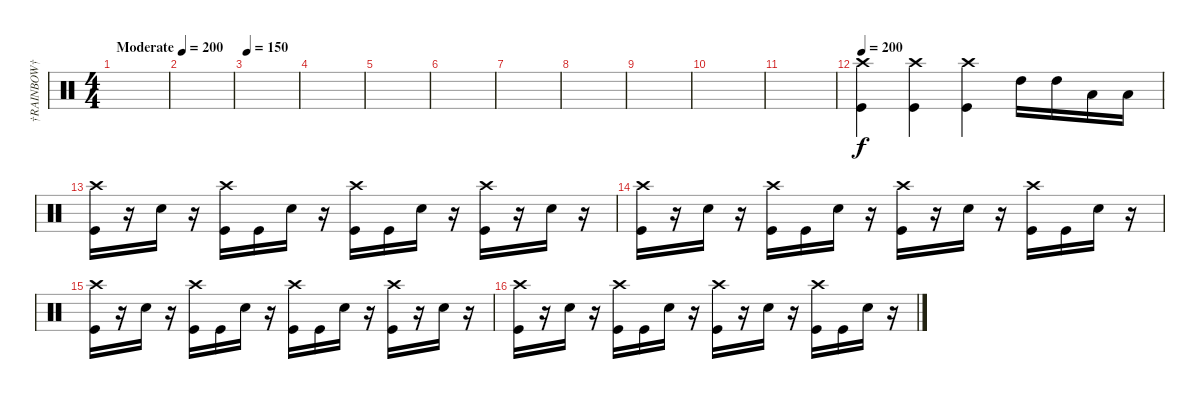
\track ("†RAINBOW†" "†RAINBOW†") {instrument percussion}
\staff {score}
\articulation defaults
\ts (4 4)
\tempo (200 "Moderate")
\clef neutral
\ks c
|
|
\tempo 150
|
|
|
|
|
|
|
|
|
\tempo 200
("Crash high (hit)" "Kick (hit)").4 ("Crash high (hit)" "Kick (hit)").4 ("Crash high (hit)" "Kick (hit)").4 "High Tom (hit)".16 "High Tom (hit)".16 "Low Tom (hit)".16 "Low Tom (hit)".16 |
("Crash high (hit)" "Kick (hit)").16 r.16 "Electric Snare (hit)".16 r.16 ("Crash high (hit)" "Kick (hit)").16 "Kick (hit)".16 "Electric Snare (hit)".16 r.16 ("Crash high (hit)" "Kick (hit)").16 "Kick (hit)".16 "Electric Snare (hit)".16 r.16 ("Crash high (hit)" "Kick (hit)").16 r.16 "Electric Snare (hit)".16 r.16 |
("Crash high (hit)" "Kick (hit)").16 r.16 "Electric Snare (hit)".16 r.16 ("Crash high (hit)" "Kick (hit)").16 "Kick (hit)".16 "Electric Snare (hit)".16 r.16 ("Crash high (hit)" "Kick (hit)").16 r.16 "Electric Snare (hit)".16 r.16 ("Crash high (hit)" "Kick (hit)").16 "Kick (hit)".16 "Electric Snare (hit)".16 r.16 |
("Crash high (hit)" "Kick (hit)").16 r.16 "Electric Snare (hit)".16 r.16 ("Crash high (hit)" "Kick (hit)").16 "Kick (hit)".16 "Electric Snare (hit)".16 r.16 ("Crash high (hit)" "Kick (hit)").16 "Kick (hit)".16 "Electric Snare (hit)".16 r.16 ("Crash high (hit)" "Kick (hit)").16 r.16 "Electric Snare (hit)".16 r.16 |
("Crash high (hit)" "Kick (hit)").16 r.16 "Electric Snare (hit)".16 r.16 ("Crash high (hit)" "Kick (hit)").16 "Kick (hit)".16 "Electric Snare (hit)".16 r.16 ("Crash high (hit)" "Kick (hit)").16 r.16 "Electric Snare (hit)".16 r.16 ("Crash high (hit)" "Kick (hit)").16 "Kick (hit)".16 "Electric Snare (hit)".16 r.16
